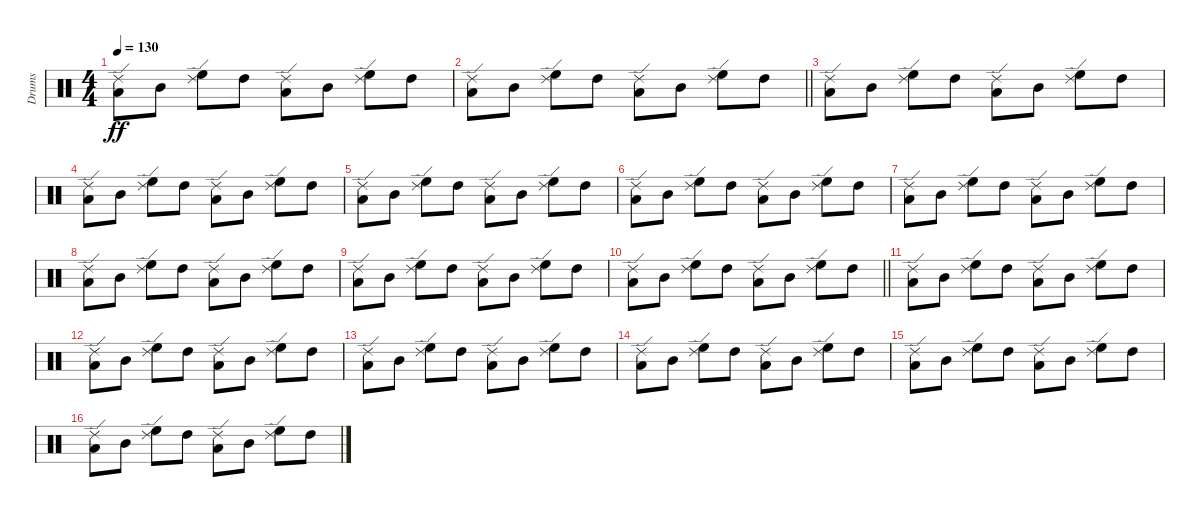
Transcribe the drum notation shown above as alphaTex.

\track ("Drums" "Drums") {instrument percussion}
\staff {score}
\articulation defaults
\ts (4 4)
\tempo 130
\clef neutral
\ks c
("Low Tom (hit)" "Ride (edge) 2").8{dy ff} "Mid Tom (hit)".8 ("High Floor Tom (hit)" "Ride (edge) 2").8 "High Tom (hit)".8 ("Low Tom (hit)" "Ride (edge) 2").8 "Mid Tom (hit)".8 ("High Floor Tom (hit)" "Ride (edge) 2").8 "High Tom (hit)".8 |
\barLineRight lightlight
("Low Tom (hit)" "Ride (edge) 2").8 "Mid Tom (hit)".8 ("High Floor Tom (hit)" "Ride (edge) 2").8 "High Tom (hit)".8 ("Low Tom (hit)" "Ride (edge) 2").8 "Mid Tom (hit)".8 ("High Floor Tom (hit)" "Ride (edge) 2").8 "High Tom (hit)".8 |
("Low Tom (hit)" "Ride (edge) 2").8 "Mid Tom (hit)".8 ("High Floor Tom (hit)" "Ride (edge) 2").8 "High Tom (hit)".8 ("Low Tom (hit)" "Ride (edge) 2").8 "Mid Tom (hit)".8 ("High Floor Tom (hit)" "Ride (edge) 2").8 "High Tom (hit)".8 |
("Low Tom (hit)" "Ride (edge) 2").8 "Mid Tom (hit)".8 ("High Floor Tom (hit)" "Ride (edge) 2").8 "High Tom (hit)".8 ("Low Tom (hit)" "Ride (edge) 2").8 "Mid Tom (hit)".8 ("High Floor Tom (hit)" "Ride (edge) 2").8 "High Tom (hit)".8 |
("Low Tom (hit)" "Ride (edge) 2").8 "Mid Tom (hit)".8 ("High Floor Tom (hit)" "Ride (edge) 2").8 "High Tom (hit)".8 ("Low Tom (hit)" "Ride (edge) 2").8 "Mid Tom (hit)".8 ("High Floor Tom (hit)" "Ride (edge) 2").8 "High Tom (hit)".8 |
("Low Tom (hit)" "Ride (edge) 2").8 "Mid Tom (hit)".8 ("High Floor Tom (hit)" "Ride (edge) 2").8 "High Tom (hit)".8 ("Low Tom (hit)" "Ride (edge) 2").8 "Mid Tom (hit)".8 ("High Floor Tom (hit)" "Ride (edge) 2").8 "High Tom (hit)".8 |
("Low Tom (hit)" "Ride (edge) 2").8 "Mid Tom (hit)".8 ("High Floor Tom (hit)" "Ride (edge) 2").8 "High Tom (hit)".8 ("Low Tom (hit)" "Ride (edge) 2").8 "Mid Tom (hit)".8 ("High Floor Tom (hit)" "Ride (edge) 2").8 "High Tom (hit)".8 |
("Low Tom (hit)" "Ride (edge) 2").8 "Mid Tom (hit)".8 ("High Floor Tom (hit)" "Ride (edge) 2").8 "High Tom (hit)".8 ("Low Tom (hit)" "Ride (edge) 2").8 "Mid Tom (hit)".8 ("High Floor Tom (hit)" "Ride (edge) 2").8 "High Tom (hit)".8 |
("Low Tom (hit)" "Ride (edge) 2").8 "Mid Tom (hit)".8 ("High Floor Tom (hit)" "Ride (edge) 2").8 "High Tom (hit)".8 ("Low Tom (hit)" "Ride (edge) 2").8 "Mid Tom (hit)".8 ("High Floor Tom (hit)" "Ride (edge) 2").8 "High Tom (hit)".8 |
\barLineRight lightlight
("Low Tom (hit)" "Ride (edge) 2").8 "Mid Tom (hit)".8 ("High Floor Tom (hit)" "Ride (edge) 2").8 "High Tom (hit)".8 ("Low Tom (hit)" "Ride (edge) 2").8 "Mid Tom (hit)".8 ("High Floor Tom (hit)" "Ride (edge) 2").8 "High Tom (hit)".8 |
("Low Tom (hit)" "Ride (edge) 2").8 "Mid Tom (hit)".8 ("High Floor Tom (hit)" "Ride (edge) 2").8 "High Tom (hit)".8 ("Low Tom (hit)" "Ride (edge) 2").8 "Mid Tom (hit)".8 ("High Floor Tom (hit)" "Ride (edge) 2").8 "High Tom (hit)".8 |
("Low Tom (hit)" "Ride (edge) 2").8 "Mid Tom (hit)".8 ("High Floor Tom (hit)" "Ride (edge) 2").8 "High Tom (hit)".8 ("Low Tom (hit)" "Ride (edge) 2").8 "Mid Tom (hit)".8 ("High Floor Tom (hit)" "Ride (edge) 2").8 "High Tom (hit)".8 |
("Low Tom (hit)" "Ride (edge) 2").8 "Mid Tom (hit)".8 ("High Floor Tom (hit)" "Ride (edge) 2").8 "High Tom (hit)".8 ("Low Tom (hit)" "Ride (edge) 2").8 "Mid Tom (hit)".8 ("High Floor Tom (hit)" "Ride (edge) 2").8 "High Tom (hit)".8 |
("Low Tom (hit)" "Ride (edge) 2").8 "Mid Tom (hit)".8 ("High Floor Tom (hit)" "Ride (edge) 2").8 "High Tom (hit)".8 ("Low Tom (hit)" "Ride (edge) 2").8 "Mid Tom (hit)".8 ("High Floor Tom (hit)" "Ride (edge) 2").8 "High Tom (hit)".8 |
("Low Tom (hit)" "Ride (edge) 2").8 "Mid Tom (hit)".8 ("High Floor Tom (hit)" "Ride (edge) 2").8 "High Tom (hit)".8 ("Low Tom (hit)" "Ride (edge) 2").8 "Mid Tom (hit)".8 ("High Floor Tom (hit)" "Ride (edge) 2").8 "High Tom (hit)".8 |
("Low Tom (hit)" "Ride (edge) 2").8 "Mid Tom (hit)".8 ("High Floor Tom (hit)" "Ride (edge) 2").8 "High Tom (hit)".8 ("Low Tom (hit)" "Ride (edge) 2").8 "Mid Tom (hit)".8 ("High Floor Tom (hit)" "Ride (edge) 2").8 "High Tom (hit)".8
